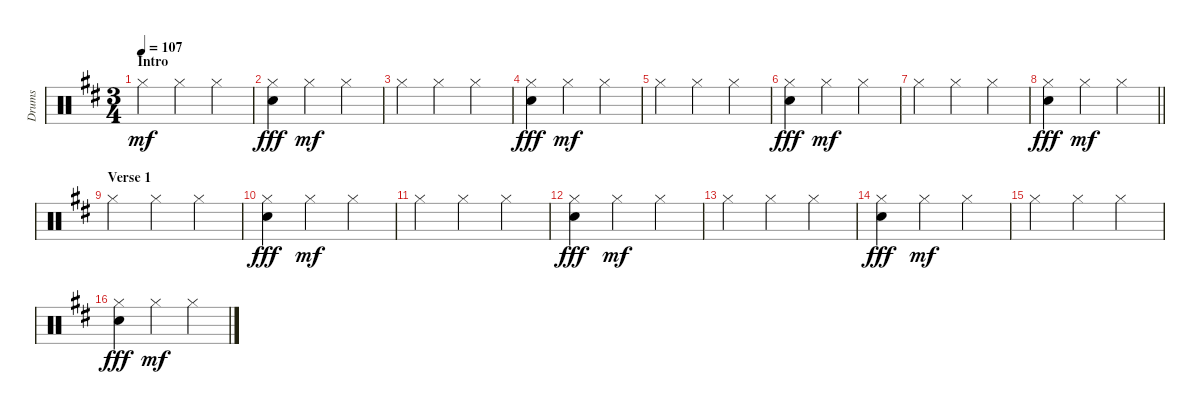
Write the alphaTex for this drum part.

\track ("Drums" "Drums") {instrument percussion}
\staff {score}
\articulation defaults
\ts (3 4)
\section ("" "Intro")
\tempo 107
\clef neutral
\ks d "Hi-Hat (closed)".4{dy mf} "Hi-Hat (closed)".4 "Hi-Hat (closed)".4
|
("Hi-Hat (closed)" "Electric Snare (hit)").4{dy fff} "Hi-Hat (closed)".4{dy mf} "Hi-Hat (closed)".4 |
"Hi-Hat (closed)".4 "Hi-Hat (closed)".4 "Hi-Hat (closed)".4 |
("Hi-Hat (closed)" "Electric Snare (hit)").4{dy fff} "Hi-Hat (closed)".4{dy mf} "Hi-Hat (closed)".4 |
"Hi-Hat (closed)".4 "Hi-Hat (closed)".4 "Hi-Hat (closed)".4 |
("Hi-Hat (closed)" "Electric Snare (hit)").4{dy fff} "Hi-Hat (closed)".4{dy mf} "Hi-Hat (closed)".4 |
"Hi-Hat (closed)".4 "Hi-Hat (closed)".4 "Hi-Hat (closed)".4 |
\barLineRight lightlight
("Hi-Hat (closed)" "Electric Snare (hit)").4{dy fff} "Hi-Hat (closed)".4{dy mf} "Hi-Hat (closed)".4 |
\section ("" "Verse 1")
"Hi-Hat (closed)".4 "Hi-Hat (closed)".4 "Hi-Hat (closed)".4 |
("Hi-Hat (closed)" "Electric Snare (hit)").4{dy fff} "Hi-Hat (closed)".4{dy mf} "Hi-Hat (closed)".4 |
"Hi-Hat (closed)".4 "Hi-Hat (closed)".4 "Hi-Hat (closed)".4 |
("Hi-Hat (closed)" "Electric Snare (hit)").4{dy fff} "Hi-Hat (closed)".4{dy mf} "Hi-Hat (closed)".4 |
"Hi-Hat (closed)".4 "Hi-Hat (closed)".4 "Hi-Hat (closed)".4 |
("Hi-Hat (closed)" "Electric Snare (hit)").4{dy fff} "Hi-Hat (closed)".4{dy mf} "Hi-Hat (closed)".4 |
"Hi-Hat (closed)".4 "Hi-Hat (closed)".4 "Hi-Hat (closed)".4 |
("Hi-Hat (closed)" "Electric Snare (hit)").4{dy fff} "Hi-Hat (closed)".4{dy mf} "Hi-Hat (closed)".4
